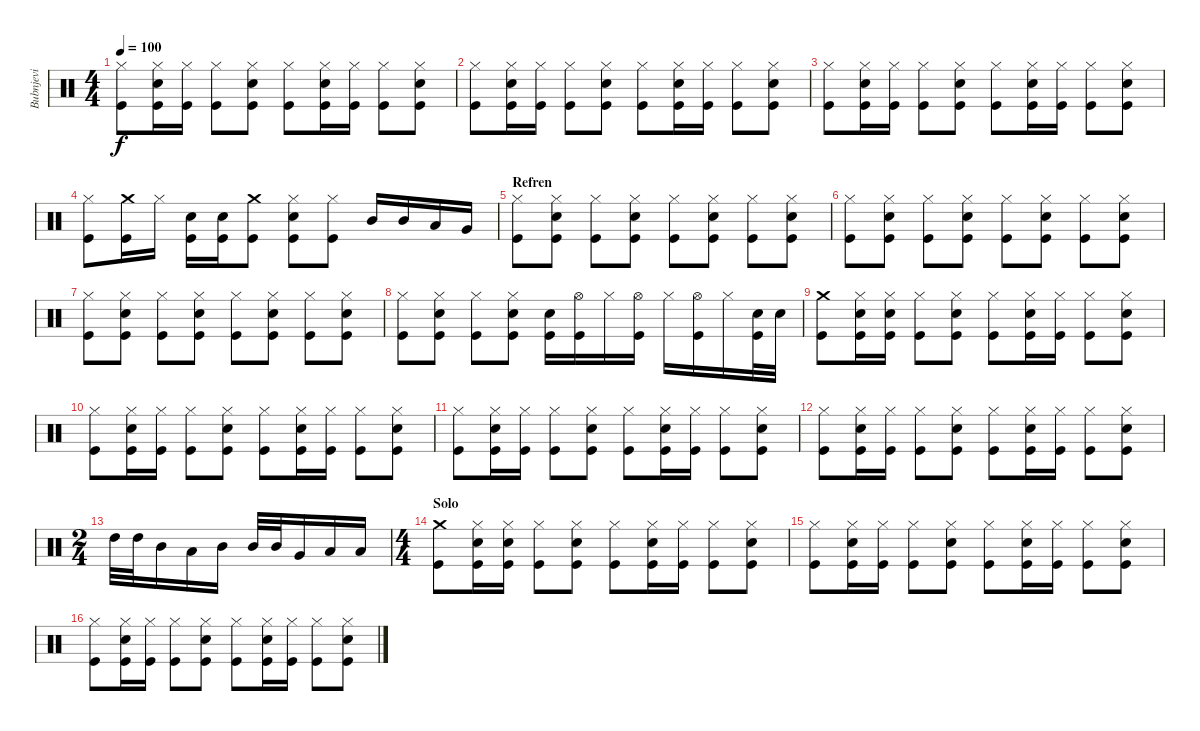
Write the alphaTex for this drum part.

\track ("Bubnjevi" "Bubnjevi") {instrument percussion}
\staff {score}
\articulation defaults
\ts (4 4)
\tempo 100
\clef neutral
\ks c
("Hi-Hat (closed)" "Kick (hit)").8{dy f} ("Electric Snare (hit)" "Hi-Hat (closed)" "Kick (hit)").16 ("Hi-Hat (closed)" "Kick (hit)").16 ("Hi-Hat (closed)" "Kick (hit)").8 ("Electric Snare (hit)" "Hi-Hat (closed)" "Kick (hit)").8 ("Hi-Hat (closed)" "Kick (hit)").8 ("Electric Snare (hit)" "Hi-Hat (closed)" "Kick (hit)").16 ("Hi-Hat (closed)" "Kick (hit)").16 ("Hi-Hat (closed)" "Kick (hit)").8 ("Electric Snare (hit)" "Hi-Hat (closed)" "Kick (hit)").8 |
("Hi-Hat (closed)" "Kick (hit)").8 ("Electric Snare (hit)" "Hi-Hat (closed)" "Kick (hit)").16 ("Hi-Hat (closed)" "Kick (hit)").16 ("Hi-Hat (closed)" "Kick (hit)").8 ("Electric Snare (hit)" "Hi-Hat (closed)" "Kick (hit)").8 ("Hi-Hat (closed)" "Kick (hit)").8 ("Electric Snare (hit)" "Hi-Hat (closed)" "Kick (hit)").16 ("Hi-Hat (closed)" "Kick (hit)").16 ("Hi-Hat (closed)" "Kick (hit)").8 ("Electric Snare (hit)" "Hi-Hat (closed)" "Kick (hit)").8 |
("Hi-Hat (closed)" "Kick (hit)").8 ("Electric Snare (hit)" "Hi-Hat (closed)" "Kick (hit)").16 ("Hi-Hat (closed)" "Kick (hit)").16 ("Hi-Hat (closed)" "Kick (hit)").8 ("Electric Snare (hit)" "Hi-Hat (closed)" "Kick (hit)").8 ("Hi-Hat (closed)" "Kick (hit)").8 ("Electric Snare (hit)" "Hi-Hat (closed)" "Kick (hit)").16 ("Hi-Hat (closed)" "Kick (hit)").16 ("Hi-Hat (closed)" "Kick (hit)").8 ("Electric Snare (hit)" "Hi-Hat (closed)" "Kick (hit)").8 |
("Hi-Hat (closed)" "Kick (hit)").8 ("Crash medium (hit)" "Kick (hit)").16 "Hi-Hat (closed)".16 ("Electric Snare (hit)" "Kick (hit)").16 ("Electric Snare (hit)" "Kick (hit)").16 ("Crash medium (hit)" "Kick (hit)").8 ("Electric Snare (hit)" "Hi-Hat (closed)" "Kick (hit)").8 ("Hi-Hat (closed)" "Kick (hit)").8 "Mid Tom (hit)".16 "Mid Tom (hit)".16 "Low Tom (hit)".16 "Very Low Tom (hit)".16 |
\section ("" "Refren")
("Hi-Hat (closed)" "Kick (hit)").8 ("Electric Snare (hit)" "Hi-Hat (closed)" "Kick (hit)").8 ("Hi-Hat (closed)" "Kick (hit)").8 ("Electric Snare (hit)" "Hi-Hat (closed)" "Kick (hit)").8 ("Hi-Hat (closed)" "Kick (hit)").8 ("Electric Snare (hit)" "Hi-Hat (closed)" "Kick (hit)").8 ("Hi-Hat (closed)" "Kick (hit)").8 ("Electric Snare (hit)" "Hi-Hat (closed)" "Kick (hit)").8 |
("Hi-Hat (closed)" "Kick (hit)").8 ("Electric Snare (hit)" "Hi-Hat (closed)" "Kick (hit)").8 ("Hi-Hat (closed)" "Kick (hit)").8 ("Electric Snare (hit)" "Hi-Hat (closed)" "Kick (hit)").8 ("Hi-Hat (closed)" "Kick (hit)").8 ("Electric Snare (hit)" "Hi-Hat (closed)" "Kick (hit)").8 ("Hi-Hat (closed)" "Kick (hit)").8 ("Electric Snare (hit)" "Hi-Hat (closed)" "Kick (hit)").8 |
("Hi-Hat (closed)" "Kick (hit)").8 ("Electric Snare (hit)" "Hi-Hat (closed)" "Kick (hit)").8 ("Hi-Hat (closed)" "Kick (hit)").8 ("Electric Snare (hit)" "Hi-Hat (closed)" "Kick (hit)").8 ("Hi-Hat (closed)" "Kick (hit)").8 ("Electric Snare (hit)" "Hi-Hat (closed)" "Kick (hit)").8 ("Hi-Hat (closed)" "Kick (hit)").8 ("Electric Snare (hit)" "Hi-Hat (closed)" "Kick (hit)").8 |
("Hi-Hat (closed)" "Kick (hit)").8 ("Electric Snare (hit)" "Hi-Hat (closed)" "Kick (hit)").8 ("Hi-Hat (closed)" "Kick (hit)").8 ("Electric Snare (hit)" "Hi-Hat (closed)" "Kick (hit)").8 ("Electric Snare (hit)" "Kick (hit)").16 ("Hi-Hat (open)" "Kick (hit)").16 "Hi-Hat (closed)".16 ("Hi-Hat (open)" "Kick (hit)").16 "Hi-Hat (closed)".16 ("Hi-Hat (open)" "Kick (hit)").16 "Hi-Hat (closed)".16 ("Electric Snare (hit)" "Kick (hit)").32 "Electric Snare (hit)".32 |
("Crash medium (hit)" "Kick (hit)").8 ("Electric Snare (hit)" "Hi-Hat (closed)" "Kick (hit)").16 ("Electric Snare (hit)" "Hi-Hat (closed)" "Kick (hit)").16 ("Hi-Hat (closed)" "Kick (hit)").8 ("Electric Snare (hit)" "Hi-Hat (closed)" "Kick (hit)").8 ("Hi-Hat (closed)" "Kick (hit)").8 ("Electric Snare (hit)" "Hi-Hat (closed)" "Kick (hit)").16 ("Hi-Hat (closed)" "Kick (hit)").16 ("Hi-Hat (closed)" "Kick (hit)").8 ("Electric Snare (hit)" "Hi-Hat (closed)" "Kick (hit)").8 |
("Hi-Hat (closed)" "Kick (hit)").8 ("Electric Snare (hit)" "Hi-Hat (closed)" "Kick (hit)").16 ("Hi-Hat (closed)" "Kick (hit)").16 ("Hi-Hat (closed)" "Kick (hit)").8 ("Electric Snare (hit)" "Hi-Hat (closed)" "Kick (hit)").8 ("Hi-Hat (closed)" "Kick (hit)").8 ("Electric Snare (hit)" "Hi-Hat (closed)" "Kick (hit)").16 ("Hi-Hat (closed)" "Kick (hit)").16 ("Hi-Hat (closed)" "Kick (hit)").8 ("Electric Snare (hit)" "Hi-Hat (closed)" "Kick (hit)").8 |
("Hi-Hat (closed)" "Kick (hit)").8 ("Electric Snare (hit)" "Hi-Hat (closed)" "Kick (hit)").16 ("Hi-Hat (closed)" "Kick (hit)").16 ("Hi-Hat (closed)" "Kick (hit)").8 ("Electric Snare (hit)" "Hi-Hat (closed)" "Kick (hit)").8 ("Hi-Hat (closed)" "Kick (hit)").8 ("Electric Snare (hit)" "Hi-Hat (closed)" "Kick (hit)").16 ("Hi-Hat (closed)" "Kick (hit)").16 ("Hi-Hat (closed)" "Kick (hit)").8 ("Electric Snare (hit)" "Hi-Hat (closed)" "Kick (hit)").8 |
("Hi-Hat (closed)" "Kick (hit)").8 ("Electric Snare (hit)" "Hi-Hat (closed)" "Kick (hit)").16 ("Hi-Hat (closed)" "Kick (hit)").16 ("Hi-Hat (closed)" "Kick (hit)").8 ("Electric Snare (hit)" "Hi-Hat (closed)" "Kick (hit)").8 ("Hi-Hat (closed)" "Kick (hit)").8 ("Electric Snare (hit)" "Hi-Hat (closed)" "Kick (hit)").16 ("Hi-Hat (closed)" "Kick (hit)").16 ("Hi-Hat (closed)" "Kick (hit)").8 ("Electric Snare (hit)" "Hi-Hat (closed)" "Kick (hit)").8 |
\ts (2 4)
"High Tom (hit)".32 "High Tom (hit)".32 "Mid Tom (hit)".16 "Low Tom (hit)".16 "Mid Tom (hit)".16 "Mid Tom (hit)".32 "Mid Tom (hit)".32 "Very Low Tom (hit)".16 "Low Tom (hit)".16 "Low Floor Tom (hit)".16 |
\ts (4 4)
\section ("" "Solo")
("Crash medium (hit)" "Kick (hit)").8 ("Electric Snare (hit)" "Hi-Hat (closed)" "Kick (hit)").16 ("Electric Snare (hit)" "Hi-Hat (closed)" "Kick (hit)").16 ("Hi-Hat (closed)" "Kick (hit)").8 ("Electric Snare (hit)" "Hi-Hat (closed)" "Kick (hit)").8 ("Hi-Hat (closed)" "Kick (hit)").8 ("Electric Snare (hit)" "Hi-Hat (closed)" "Kick (hit)").16 ("Hi-Hat (closed)" "Kick (hit)").16 ("Hi-Hat (closed)" "Kick (hit)").8 ("Electric Snare (hit)" "Hi-Hat (closed)" "Kick (hit)").8 |
("Hi-Hat (closed)" "Kick (hit)").8 ("Electric Snare (hit)" "Hi-Hat (closed)" "Kick (hit)").16 ("Hi-Hat (closed)" "Kick (hit)").16 ("Hi-Hat (closed)" "Kick (hit)").8 ("Electric Snare (hit)" "Hi-Hat (closed)" "Kick (hit)").8 ("Hi-Hat (closed)" "Kick (hit)").8 ("Electric Snare (hit)" "Hi-Hat (closed)" "Kick (hit)").16 ("Hi-Hat (closed)" "Kick (hit)").16 ("Hi-Hat (closed)" "Kick (hit)").8 ("Electric Snare (hit)" "Hi-Hat (closed)" "Kick (hit)").8 |
("Hi-Hat (closed)" "Kick (hit)").8 ("Electric Snare (hit)" "Hi-Hat (closed)" "Kick (hit)").16 ("Hi-Hat (closed)" "Kick (hit)").16 ("Hi-Hat (closed)" "Kick (hit)").8 ("Electric Snare (hit)" "Hi-Hat (closed)" "Kick (hit)").8 ("Hi-Hat (closed)" "Kick (hit)").8 ("Electric Snare (hit)" "Hi-Hat (closed)" "Kick (hit)").16 ("Hi-Hat (closed)" "Kick (hit)").16 ("Hi-Hat (closed)" "Kick (hit)").8 ("Electric Snare (hit)" "Hi-Hat (closed)" "Kick (hit)").8
